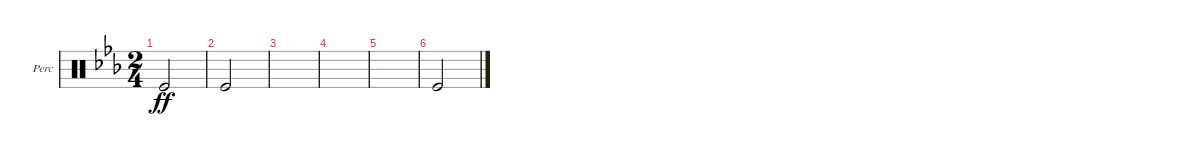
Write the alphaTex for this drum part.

\defaultSystemsLayout 4
\bracketExtendMode groupsimilarinstruments
\firstSystemTrackNameOrientation horizontal
\otherSystemsTrackNameOrientation horizontal
\track ("Body Percussion" "Perc") {instrument percussion}
\staff {score}
\articulation defaults
\ts (2 4)
\tempo (190 hide)
\clef neutral
\ks cminor "Kick (hit)".2{dy ff}
|
\scale
0.318519 "Kick (hit)".2 |
\scale
0.311631 |
\scale
0.194552 |
\scale
0.175309 |
"Kick (hit)".2 |
|
|
|
|
|
\scale
0.63833 |
\scale
0.169302 |
\scale
0.192488
